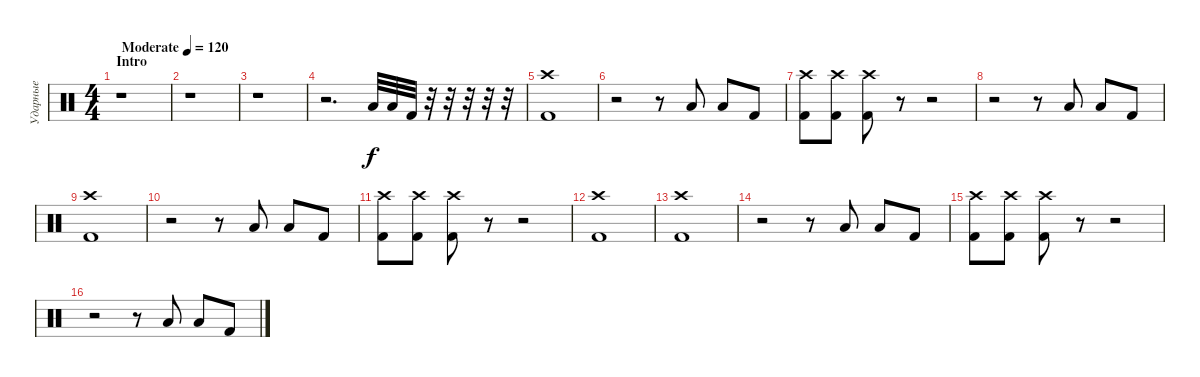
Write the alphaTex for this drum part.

\track ("Ударные" "Ударные") {instrument percussion}
\staff {score}
\articulation defaults
\ts (4 4)
\section ("" "Intro")
\tempo (120 "Moderate")
\clef neutral
\ks c
r.1{dy f} |
r.1 |
r.1 |
r.2{d} "Low Floor Tom (hit)".32 "Low Floor Tom (hit)".32 "Kick (hit) 2".32 r.32 r.32 r.32 r.32 r.32 |
("Crash high (hit)" "Kick (hit) 2").1 |
r.2 r.8 "Low Tom (hit)".8 "Low Floor Tom (hit)".8 "Kick (hit) 2".8 |
("Crash high (hit)" "Kick (hit) 2").8 ("Crash high (hit)" "Kick (hit) 2").8 ("Crash high (hit)" "Kick (hit) 2").8 r.8 r.2 |
r.2 r.8 "Low Tom (hit)".8 "Low Floor Tom (hit)".8 "Kick (hit) 2".8 |
("Crash high (hit)" "Kick (hit) 2").1 |
r.2 r.8 "Low Tom (hit)".8 "Low Floor Tom (hit)".8 "Kick (hit) 2".8 |
("Crash high (hit)" "Kick (hit) 2").8 ("Crash high (hit)" "Kick (hit) 2").8 ("Crash high (hit)" "Kick (hit) 2").8 r.8 r.2 |
("Crash high (hit)" "Kick (hit) 2").1 |
("Crash high (hit)" "Kick (hit) 2").1 |
r.2 r.8 "Low Tom (hit)".8 "Low Floor Tom (hit)".8 "Kick (hit) 2".8 |
("Crash high (hit)" "Kick (hit) 2").8 ("Crash high (hit)" "Kick (hit) 2").8 ("Crash high (hit)" "Kick (hit) 2").8 r.8 r.2 |
r.2 r.8 "Low Tom (hit)".8 "Low Floor Tom (hit)".8 "Kick (hit) 2".8
